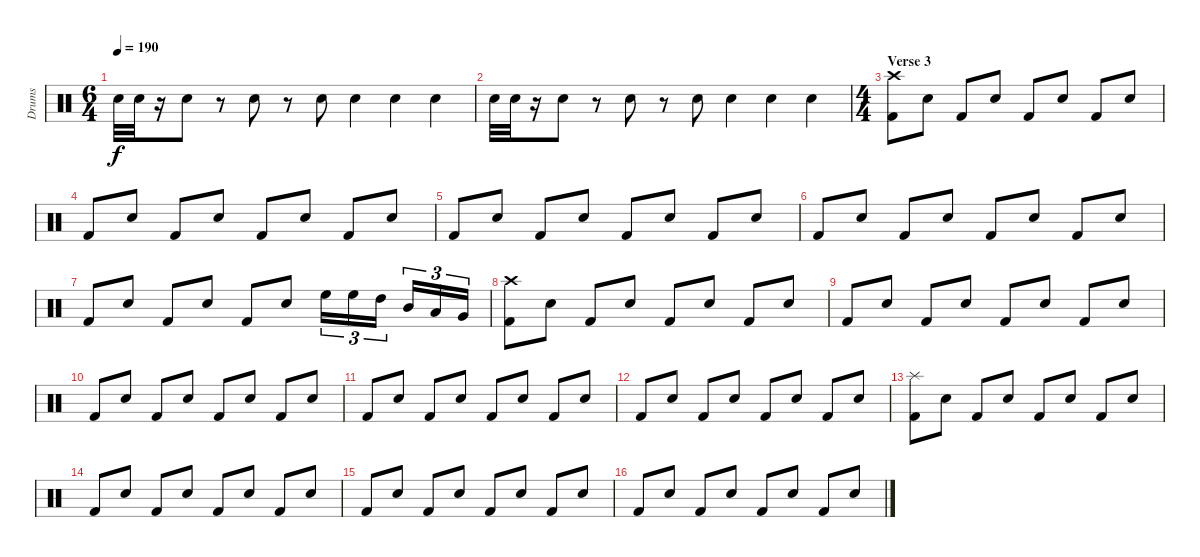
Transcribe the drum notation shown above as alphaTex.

\track ("Drums" "Drums") {instrument percussion}
\staff {score}
\articulation defaults
\ts (6 4)
\tempo 190
\clef neutral
\ks c "Snare (hit) 2".32{dy f} "Snare (hit) 2".32
r.16 "Snare (hit) 2".8 r.8 "Snare (hit) 2".8 r.8 "Snare (hit) 2".8 "Snare (hit) 2".4 "Snare (hit) 2".4 "Snare (hit) 2".4 |
"Snare (hit) 2".32 "Snare (hit) 2".32 r.16 "Snare (hit) 2".8 r.8 "Snare (hit) 2".8 r.8 "Snare (hit) 2".8 "Snare (hit) 2".4 "Snare (hit) 2".4 "Snare (hit) 2".4 |
\ts (4 4)
\section ("" "Verse 3")
("Crash high (hit)" "Kick (hit) 2").8 "Snare (hit) 2".8 "Kick (hit) 2".8 "Snare (hit) 2".8 "Kick (hit) 2".8 "Snare (hit) 2".8 "Kick (hit) 2".8 "Snare (hit) 2".8 |
"Kick (hit) 2".8 "Snare (hit) 2".8 "Kick (hit) 2".8 "Snare (hit) 2".8 "Kick (hit) 2".8 "Snare (hit) 2".8 "Kick (hit) 2".8 "Snare (hit) 2".8 |
"Kick (hit) 2".8 "Snare (hit) 2".8 "Kick (hit) 2".8 "Snare (hit) 2".8 "Kick (hit) 2".8 "Snare (hit) 2".8 "Kick (hit) 2".8 "Snare (hit) 2".8 |
"Kick (hit) 2".8 "Snare (hit) 2".8 "Kick (hit) 2".8 "Snare (hit) 2".8 "Kick (hit) 2".8 "Snare (hit) 2".8 "Kick (hit) 2".8 "Snare (hit) 2".8 |
"Kick (hit) 2".8 "Snare (hit) 2".8 "Kick (hit) 2".8 "Snare (hit) 2".8 "Kick (hit) 2".8 "Snare (hit) 2".8 "High Floor Tom (hit)".16{tu (3 2)} "High Floor Tom (hit)".16{tu (3 2)} "High Tom (hit)".16{tu (3 2)} "Mid Tom (hit)".16{tu (3 2)} "Low Tom (hit)".16{tu (3 2)} "Very Low Tom (hit)".16{tu (3 2)} |
("Crash high (hit)" "Kick (hit) 2").8 "Snare (hit) 2".8 "Kick (hit) 2".8 "Snare (hit) 2".8 "Kick (hit) 2".8 "Snare (hit) 2".8 "Kick (hit) 2".8 "Snare (hit) 2".8 |
"Kick (hit) 2".8 "Snare (hit) 2".8 "Kick (hit) 2".8 "Snare (hit) 2".8 "Kick (hit) 2".8 "Snare (hit) 2".8 "Kick (hit) 2".8 "Snare (hit) 2".8 |
"Kick (hit) 2".8 "Snare (hit) 2".8 "Kick (hit) 2".8 "Snare (hit) 2".8 "Kick (hit) 2".8 "Snare (hit) 2".8 "Kick (hit) 2".8 "Snare (hit) 2".8 |
"Kick (hit) 2".8 "Snare (hit) 2".8 "Kick (hit) 2".8 "Snare (hit) 2".8 "Kick (hit) 2".8 "Snare (hit) 2".8 "Kick (hit) 2".8 "Snare (hit) 2".8 |
"Kick (hit) 2".8 "Snare (hit) 2".8 "Kick (hit) 2".8 "Snare (hit) 2".8 "Kick (hit) 2".8 "Snare (hit) 2".8 "Kick (hit) 2".8 "Snare (hit) 2".8 |
("Splash (hit)" "Kick (hit) 2").8 "Snare (hit) 2".8 "Kick (hit) 2".8 "Snare (hit) 2".8 "Kick (hit) 2".8 "Snare (hit) 2".8 "Kick (hit) 2".8 "Snare (hit) 2".8 |
"Kick (hit) 2".8 "Snare (hit) 2".8 "Kick (hit) 2".8 "Snare (hit) 2".8 "Kick (hit) 2".8 "Snare (hit) 2".8 "Kick (hit) 2".8 "Snare (hit) 2".8 |
"Kick (hit) 2".8 "Snare (hit) 2".8 "Kick (hit) 2".8 "Snare (hit) 2".8 "Kick (hit) 2".8 "Snare (hit) 2".8 "Kick (hit) 2".8 "Snare (hit) 2".8 |
"Kick (hit) 2".8 "Snare (hit) 2".8 "Kick (hit) 2".8 "Snare (hit) 2".8 "Kick (hit) 2".8 "Snare (hit) 2".8 "Kick (hit) 2".8 "Snare (hit) 2".8
